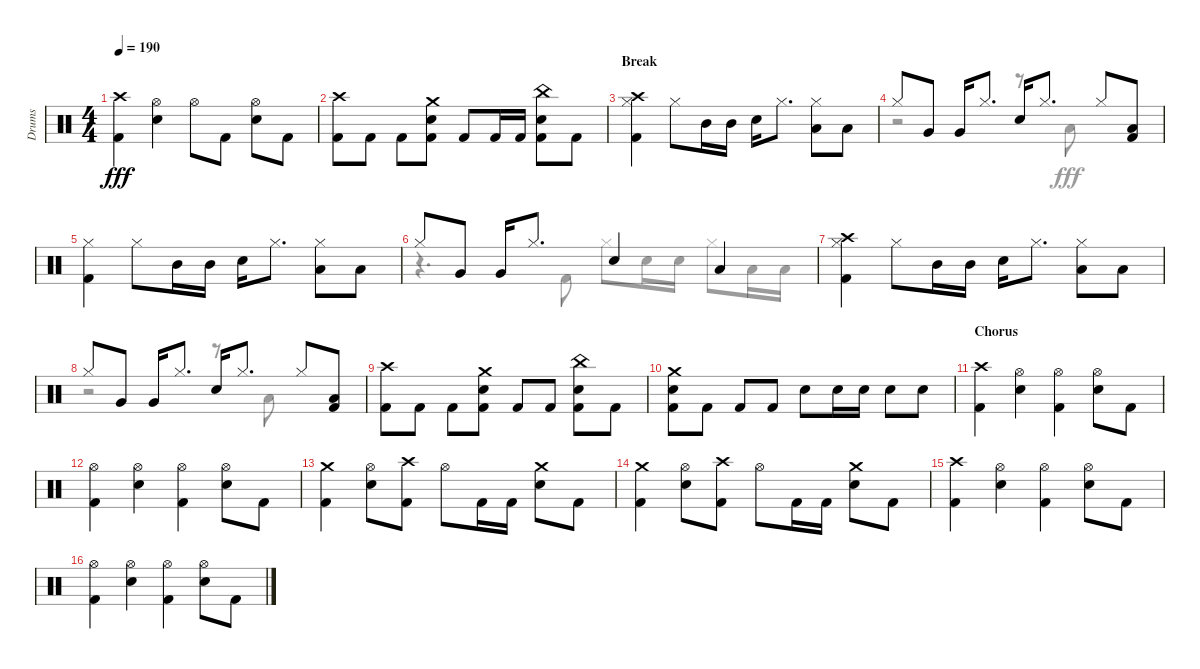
\track ("Drums" "Drums") {instrument percussion}
\staff {score}
\articulation defaults
\voice
\ts (4 4)
\tempo 190
\clef neutral
\ks aminor
("Kick (hit) 2" "Crash high (hit)").4{dy fff} ("Snare (hit) 2" "Hi-Hat (open)").4 "Hi-Hat (open)".8 "Kick (hit) 2".8 ("Snare (hit) 2" "Hi-Hat (open)").8 "Kick (hit) 2".8 |
("Kick (hit) 2" "Crash high (hit)").8 "Kick (hit) 2".8 "Kick (hit) 2".8 ("Snare (hit) 2" "Kick (hit) 2" "Crash medium (hit)").8 "Kick (hit) 2".8 "Kick (hit) 2".16 "Kick (hit) 2".16 ("Kick (hit) 2" "Snare (hit) 2" "China (hit)").8 "Kick (hit) 2".8 |
\section ("" "Break")
("Hi-Hat (closed)" "Kick (hit) 2" "Crash high (hit)").4 "Hi-Hat (closed)".8 "Mid Tom (hit)".16 "Mid Tom (hit)".16 "Snare (hit) 2".16 "Hi-Hat (closed)".8{d} ("Hi-Hat (closed)" "Low Tom (hit)").8 "Low Tom (hit)".8 |
"Hi-Hat (closed)".8 "Very Low Tom (hit)".8 "Very Low Tom (hit)".16 "Hi-Hat (closed)".8{d} "Snare (hit) 2".16 "Hi-Hat (closed)".8{d} "Hi-Hat (closed)".8 ("Kick (hit) 2" "Low Floor Tom (hit)").8 |
("Hi-Hat (closed)" "Kick (hit) 2").4 "Hi-Hat (closed)".8 "Mid Tom (hit)".16 "Mid Tom (hit)".16 "Snare (hit) 2".16 "Hi-Hat (closed)".8{d} ("Hi-Hat (closed)" "Low Tom (hit)").8 "Low Tom (hit)".8 |
"Hi-Hat (closed)".8 "Very Low Tom (hit)".8 "Very Low Tom (hit)".16 "Hi-Hat (closed)".8{d} "Snare (hit) 2".4 "Low Floor Tom (hit)".4 |
("Crash high (hit)" "Hi-Hat (closed)" "Kick (hit) 2").4 "Hi-Hat (closed)".8 "Mid Tom (hit)".16 "Mid Tom (hit)".16 "Snare (hit) 2".16 "Hi-Hat (closed)".8{d} ("Hi-Hat (closed)" "Low Tom (hit)").8 "Low Tom (hit)".8 |
"Hi-Hat (closed)".8 "Very Low Tom (hit)".8 "Very Low Tom (hit)".16 "Hi-Hat (closed)".8{d} "Snare (hit) 2".16 "Hi-Hat (closed)".8{d} "Hi-Hat (closed)".8 ("Kick (hit) 2" "Low Floor Tom (hit)").8 |
("Kick (hit) 2" "Crash high (hit)").8 "Kick (hit) 2".8 "Kick (hit) 2".8 ("Crash medium (hit)" "Snare (hit) 2" "Kick (hit) 2").8 "Kick (hit) 2".8 "Kick (hit) 2".8 ("China (hit)" "Snare (hit) 2" "Kick (hit) 2").8 "Kick (hit) 2".8 |
("Snare (hit) 2" "Crash medium (hit)" "Kick (hit) 2").8 "Kick (hit) 2".8 "Kick (hit) 2".8 "Kick (hit) 2".8 "Snare (hit) 2".8 "Snare (hit) 2".16 "Snare (hit) 2".16 "Snare (hit) 2".8 "Snare (hit) 2".8 |
\section ("" "Chorus")
("Kick (hit) 2" "Crash high (hit)").4 ("Snare (hit) 2" "Hi-Hat (open)").4 ("Kick (hit) 2" "Hi-Hat (open)").4 ("Snare (hit) 2" "Hi-Hat (open)").8 "Kick (hit) 2".8 |
("Kick (hit) 2" "Hi-Hat (open)").4 ("Snare (hit) 2" "Hi-Hat (open)").4 ("Hi-Hat (open)" "Kick (hit) 2").4 ("Snare (hit) 2" "Hi-Hat (open)").8 "Kick (hit) 2".8 |
("Crash medium (hit)" "Kick (hit) 2").4 ("Snare (hit) 2" "Hi-Hat (open)").8 ("Crash high (hit)" "Kick (hit) 2").8 "Hi-Hat (open)".8 "Kick (hit) 2".16 "Kick (hit) 2".16 ("Snare (hit) 2" "Crash medium (hit)").8 "Kick (hit) 2".8 |
("Crash medium (hit)" "Kick (hit) 2").4 ("Snare (hit) 2" "Hi-Hat (open)").8 ("Kick (hit) 2" "Crash high (hit)").8 "Hi-Hat (open)".8 "Kick (hit) 2".16 "Kick (hit) 2".16 ("Crash medium (hit)" "Snare (hit) 2").8 "Kick (hit) 2".8 |
("Kick (hit) 2" "Crash high (hit)").4 ("Hi-Hat (open)" "Snare (hit) 2").4 ("Hi-Hat (open)" "Kick (hit) 2").4 ("Snare (hit) 2" "Hi-Hat (open)").8 "Kick (hit) 2".8 |
("Kick (hit) 2" "Hi-Hat (open)").4 ("Snare (hit) 2" "Hi-Hat (open)").4 ("Hi-Hat (open)" "Kick (hit) 2").4 ("Hi-Hat (open)" "Snare (hit) 2").8 "Kick (hit) 2".8
\voice
\clef neutral
\ottava regular
\simile none
\ks aminor
|
|
|
r.2 r.8 "Low Floor Tom (hit)".8 |
|
r.4{d} "Kick (hit) 2".8 "Hi-Hat (closed)".8 "Snare (hit) 2".16 "Snare (hit) 2".16 "Hi-Hat (closed)".8 "Low Floor Tom (hit)".16 "Low Floor Tom (hit)".16 |
|
r.2 r.8 "Low Floor Tom (hit)".8 |
|
|
|
|
|
|
|
